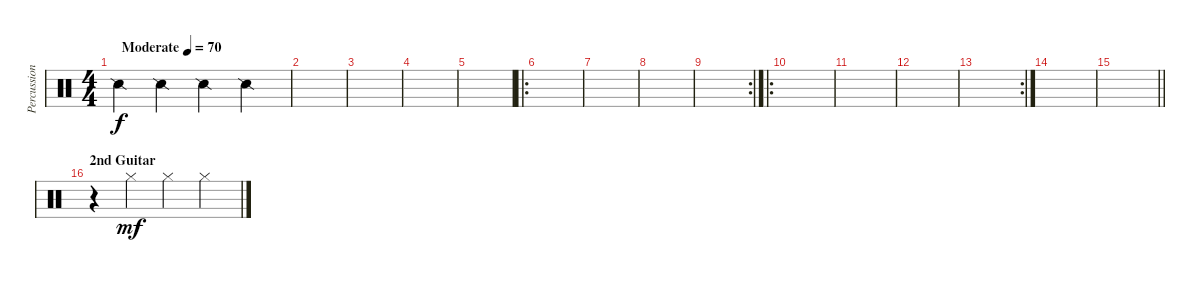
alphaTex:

\track ("Percussion" "Percussion") {instrument percussion}
\staff {score}
\articulation defaults
\ts (4 4)
\tempo (70 "Moderate")
\clef neutral
\ks c "Snare (side stick) 2".4{dy f} "Snare (side stick) 2".4 "Snare (side stick) 2".4 "Snare (side stick) 2".4
|
|
|
|
|
\ro
|
|
|
\rc 2
|
\ro
|
|
|
\rc 2
|
|
\barLineRight lightlight
|
\section ("" "2nd Guitar")
r.4 "Hi-Hat (closed)".4{dy mf} "Hi-Hat (closed)".4 "Hi-Hat (closed)".4
